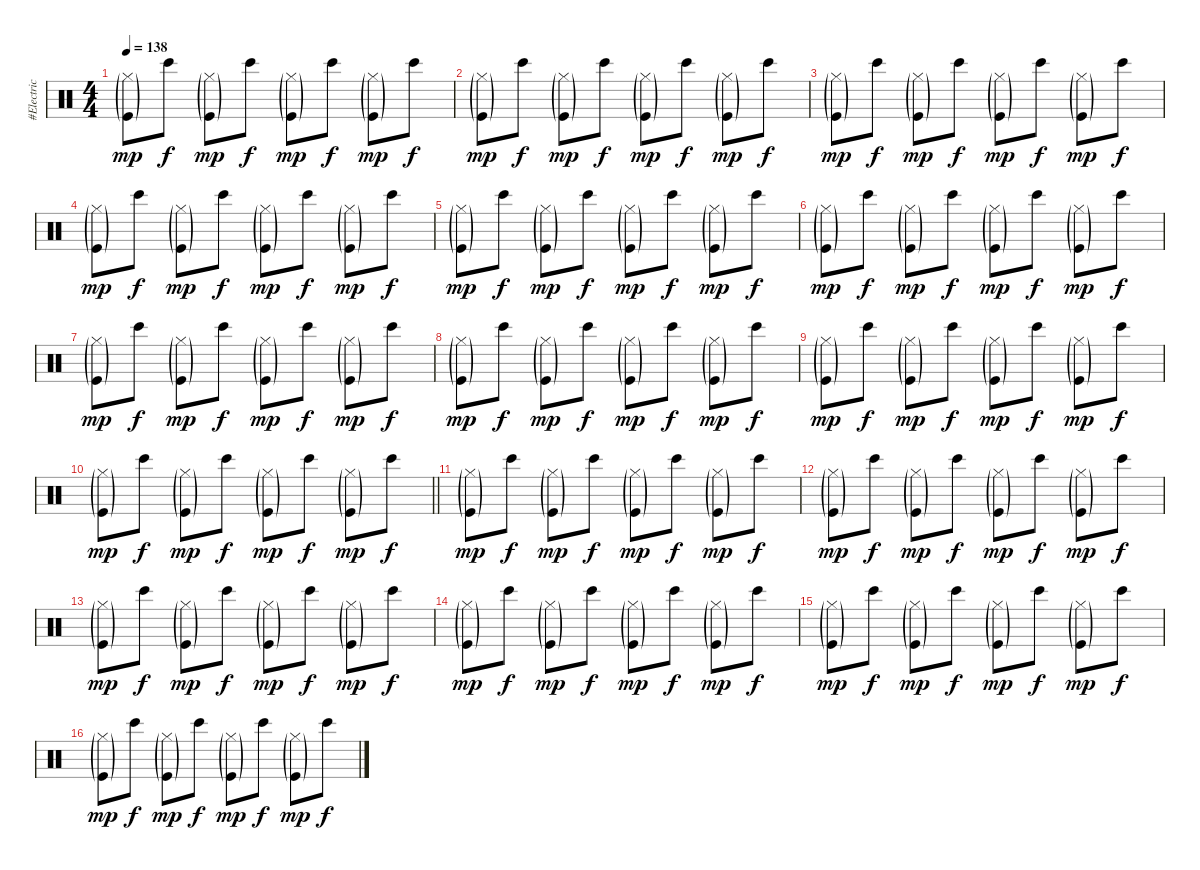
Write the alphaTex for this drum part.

\track ("#Electric Drums" "#Electric ") {instrument percussion}
\staff {score}
\articulation defaults
\ts (4 4)
\tempo 138
\clef neutral
\ks c
("Kick (hit)"{g} "Hi-Hat (closed)"{g}).8{dy mp} "Bongo High (hit)".8{dy f} ("Kick (hit)"{g} "Hi-Hat (closed)"{g}).8{dy mp} "Bongo High (hit)".8{dy f} ("Kick (hit)"{g} "Hi-Hat (closed)"{g}).8{dy mp} "Bongo High (hit)".8{dy f} ("Kick (hit)"{g} "Hi-Hat (closed)"{g}).8{dy mp} "Bongo High (hit)".8{dy f} |
("Kick (hit)"{g} "Hi-Hat (closed)"{g}).8{dy mp} "Bongo High (hit)".8{dy f} ("Kick (hit)"{g} "Hi-Hat (closed)"{g}).8{dy mp} "Bongo High (hit)".8{dy f} ("Kick (hit)"{g} "Hi-Hat (closed)"{g}).8{dy mp} "Bongo High (hit)".8{dy f} ("Kick (hit)"{g} "Hi-Hat (closed)"{g}).8{dy mp} "Bongo High (hit)".8{dy f} |
("Kick (hit)"{g} "Hi-Hat (closed)"{g}).8{dy mp} "Bongo High (hit)".8{dy f} ("Kick (hit)"{g} "Hi-Hat (closed)"{g}).8{dy mp} "Bongo High (hit)".8{dy f} ("Kick (hit)"{g} "Hi-Hat (closed)"{g}).8{dy mp} "Bongo High (hit)".8{dy f} ("Kick (hit)"{g} "Hi-Hat (closed)"{g}).8{dy mp} "Bongo High (hit)".8{dy f} |
("Kick (hit)"{g} "Hi-Hat (closed)"{g}).8{dy mp} "Bongo High (hit)".8{dy f} ("Kick (hit)"{g} "Hi-Hat (closed)"{g}).8{dy mp} "Bongo High (hit)".8{dy f} ("Kick (hit)"{g} "Hi-Hat (closed)"{g}).8{dy mp} "Bongo High (hit)".8{dy f} ("Kick (hit)"{g} "Hi-Hat (closed)"{g}).8{dy mp} "Bongo High (hit)".8{dy f} |
("Kick (hit)"{g} "Hi-Hat (closed)"{g}).8{dy mp} "Bongo High (hit)".8{dy f} ("Kick (hit)"{g} "Hi-Hat (closed)"{g}).8{dy mp} "Bongo High (hit)".8{dy f} ("Kick (hit)"{g} "Hi-Hat (closed)"{g}).8{dy mp} "Bongo High (hit)".8{dy f} ("Kick (hit)"{g} "Hi-Hat (closed)"{g}).8{dy mp} "Bongo High (hit)".8{dy f} |
("Kick (hit)"{g} "Hi-Hat (closed)"{g}).8{dy mp} "Bongo High (hit)".8{dy f} ("Kick (hit)"{g} "Hi-Hat (closed)"{g}).8{dy mp} "Bongo High (hit)".8{dy f} ("Kick (hit)"{g} "Hi-Hat (closed)"{g}).8{dy mp} "Bongo High (hit)".8{dy f} ("Kick (hit)"{g} "Hi-Hat (closed)"{g}).8{dy mp} "Bongo High (hit)".8{dy f} |
("Kick (hit)"{g} "Hi-Hat (closed)"{g}).8{dy mp} "Bongo High (hit)".8{dy f} ("Kick (hit)"{g} "Hi-Hat (closed)"{g}).8{dy mp} "Bongo High (hit)".8{dy f} ("Kick (hit)"{g} "Hi-Hat (closed)"{g}).8{dy mp} "Bongo High (hit)".8{dy f} ("Kick (hit)"{g} "Hi-Hat (closed)"{g}).8{dy mp} "Bongo High (hit)".8{dy f} |
("Kick (hit)"{g} "Hi-Hat (closed)"{g}).8{dy mp} "Bongo High (hit)".8{dy f} ("Kick (hit)"{g} "Hi-Hat (closed)"{g}).8{dy mp} "Bongo High (hit)".8{dy f} ("Kick (hit)"{g} "Hi-Hat (closed)"{g}).8{dy mp} "Bongo High (hit)".8{dy f} ("Kick (hit)"{g} "Hi-Hat (closed)"{g}).8{dy mp} "Bongo High (hit)".8{dy f} |
("Kick (hit)"{g} "Hi-Hat (closed)"{g}).8{dy mp} "Bongo High (hit)".8{dy f} ("Kick (hit)"{g} "Hi-Hat (closed)"{g}).8{dy mp} "Bongo High (hit)".8{dy f} ("Kick (hit)"{g} "Hi-Hat (closed)"{g}).8{dy mp} "Bongo High (hit)".8{dy f} ("Kick (hit)"{g} "Hi-Hat (closed)"{g}).8{dy mp} "Bongo High (hit)".8{dy f} |
\barLineRight lightlight
("Kick (hit)"{g} "Hi-Hat (closed)"{g}).8{dy mp} "Bongo High (hit)".8{dy f} ("Kick (hit)"{g} "Hi-Hat (closed)"{g}).8{dy mp} "Bongo High (hit)".8{dy f} ("Kick (hit)"{g} "Hi-Hat (closed)"{g}).8{dy mp} "Bongo High (hit)".8{dy f} ("Kick (hit)"{g} "Hi-Hat (closed)"{g}).8{dy mp} "Bongo High (hit)".8{dy f} |
("Kick (hit)"{g} "Hi-Hat (closed)"{g}).8{dy mp} "Bongo High (hit)".8{dy f} ("Kick (hit)"{g} "Hi-Hat (closed)"{g}).8{dy mp} "Bongo High (hit)".8{dy f} ("Kick (hit)"{g} "Hi-Hat (closed)"{g}).8{dy mp} "Bongo High (hit)".8{dy f} ("Kick (hit)"{g} "Hi-Hat (closed)"{g}).8{dy mp} "Bongo High (hit)".8{dy f} |
("Kick (hit)"{g} "Hi-Hat (closed)"{g}).8{dy mp} "Bongo High (hit)".8{dy f} ("Kick (hit)"{g} "Hi-Hat (closed)"{g}).8{dy mp} "Bongo High (hit)".8{dy f} ("Kick (hit)"{g} "Hi-Hat (closed)"{g}).8{dy mp} "Bongo High (hit)".8{dy f} ("Kick (hit)"{g} "Hi-Hat (closed)"{g}).8{dy mp} "Bongo High (hit)".8{dy f} |
("Kick (hit)"{g} "Hi-Hat (closed)"{g}).8{dy mp} "Bongo High (hit)".8{dy f} ("Kick (hit)"{g} "Hi-Hat (closed)"{g}).8{dy mp} "Bongo High (hit)".8{dy f} ("Kick (hit)"{g} "Hi-Hat (closed)"{g}).8{dy mp} "Bongo High (hit)".8{dy f} ("Kick (hit)"{g} "Hi-Hat (closed)"{g}).8{dy mp} "Bongo High (hit)".8{dy f} |
("Kick (hit)"{g} "Hi-Hat (closed)"{g}).8{dy mp} "Bongo High (hit)".8{dy f} ("Kick (hit)"{g} "Hi-Hat (closed)"{g}).8{dy mp} "Bongo High (hit)".8{dy f} ("Kick (hit)"{g} "Hi-Hat (closed)"{g}).8{dy mp} "Bongo High (hit)".8{dy f} ("Kick (hit)"{g} "Hi-Hat (closed)"{g}).8{dy mp} "Bongo High (hit)".8{dy f} |
("Kick (hit)"{g} "Hi-Hat (closed)"{g}).8{dy mp} "Bongo High (hit)".8{dy f} ("Kick (hit)"{g} "Hi-Hat (closed)"{g}).8{dy mp} "Bongo High (hit)".8{dy f} ("Kick (hit)"{g} "Hi-Hat (closed)"{g}).8{dy mp} "Bongo High (hit)".8{dy f} ("Kick (hit)"{g} "Hi-Hat (closed)"{g}).8{dy mp} "Bongo High (hit)".8{dy f} |
("Kick (hit)"{g} "Hi-Hat (closed)"{g}).8{dy mp} "Bongo High (hit)".8{dy f} ("Kick (hit)"{g} "Hi-Hat (closed)"{g}).8{dy mp} "Bongo High (hit)".8{dy f} ("Kick (hit)"{g} "Hi-Hat (closed)"{g}).8{dy mp} "Bongo High (hit)".8{dy f} ("Kick (hit)"{g} "Hi-Hat (closed)"{g}).8{dy mp} "Bongo High (hit)".8{dy f}
